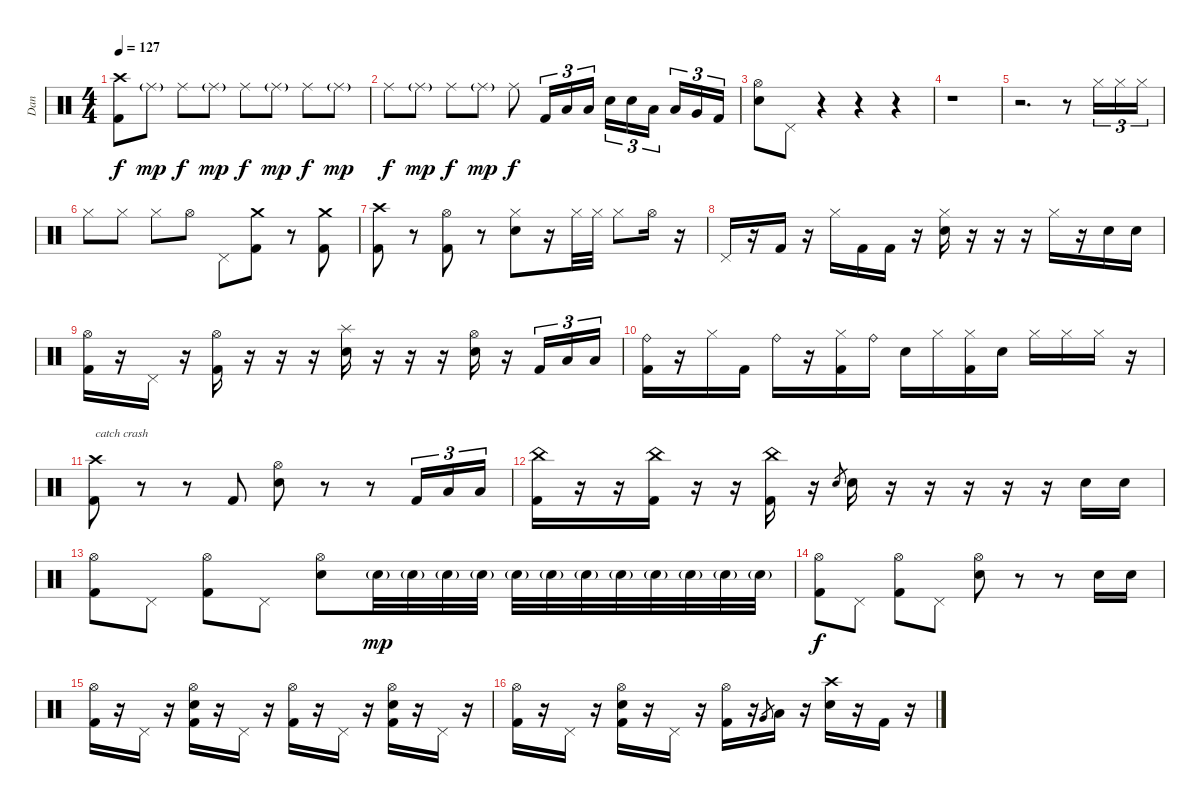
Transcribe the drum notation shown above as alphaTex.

\track ("Dan" "Dan") {instrument percussion}
\staff {score}
\articulation defaults
\ts (4 4)
\tempo 127
\clef neutral
\ks c
("Crash high (hit)" "Kick (hit) 2").8{dy f} "Ride (middle)"{g}.8{dy mp} "Ride (middle)".8{dy f} "Ride (middle)"{g}.8{dy mp} "Ride (middle)".8{dy f} "Ride (middle)"{g}.8{dy mp} "Ride (middle)".8{dy f} "Ride (middle)"{g}.8{dy mp} |
"Ride (middle)".8{dy f} "Ride (middle)"{g}.8{dy mp} "Ride (middle)".8{dy f} "Ride (middle)"{g}.8{dy mp} "Ride (middle)".8{dy f} "Kick (hit) 2".16{tu (3 2)} "Low Tom (hit)".16{tu (3 2)} "Low Tom (hit)".16{tu (3 2)} "Electric Snare (hit)".16{tu (3 2)} "Electric Snare (hit)".16{tu (3 2)} "Low Tom (hit)".16{tu (3 2) beam splitsecondary} "Low Tom (hit)".16{tu (3 2)} "Very Low Tom (hit)".16{tu (3 2)} "Kick (hit) 2".16{tu (3 2)} |
("Hi-Hat (open)" "Electric Snare (hit)").8 "Pedal Hi-Hat (hit)".8 r.4 r.4 r.4 |
r.1 |
r.2{d} r.8 "Hi-Hat (closed)".16{tu (3 2)} "Hi-Hat (closed)".16{tu (3 2)} "Hi-Hat (closed)".16{tu (3 2)} |
"Hi-Hat (closed)".8 "Hi-Hat (closed)".8 "Hi-Hat (closed)".8 "Hi-Hat (open)".8 "Pedal Hi-Hat (hit)".8 ("Crash medium (hit)" "Kick (hit) 2").8 r.8 ("Crash medium (hit)" "Kick (hit) 2").8 |
("Crash high (hit)" "Kick (hit) 2").8 r.8 ("Hi-Hat (open)" "Kick (hit) 2").8 r.8 ("Hi-Hat (closed)" "Electric Snare (hit)").8 r.16 "Hi-Hat (closed)".32 "Hi-Hat (closed)".32 "Hi-Hat (closed)".8 "Hi-Hat (open)".16 r.16 |
"Pedal Hi-Hat (hit)".16 r.16 "Kick (hit) 2".16 r.16 "Hi-Hat (closed)".16 "Kick (hit) 2".16 "Kick (hit) 2".16 r.16 ("Hi-Hat (closed)" "Electric Snare (hit)").16 r.16 r.16 r.16 "Hi-Hat (closed)".16 r.16 "Electric Snare (hit)".16 "Electric Snare (hit)".16 |
("Hi-Hat (open)" "Kick (hit) 2").16 r.16 "Pedal Hi-Hat (hit)".16 r.16 ("Hi-Hat (open)" "Kick (hit) 2").16 r.16 r.16 r.16 ("Splash (hit)" "Electric Snare (hit)").16 r.16 r.16 r.16 ("Hi-Hat (open)" "Electric Snare (hit)").16 r.16 "Kick (hit) 2".16{tu (3 2)} "Low Tom (hit)".16{tu (3 2)} "Low Tom (hit)".16{tu (3 2)} |
("Ride (bell)" "Kick (hit) 2").16 r.16 "Hi-Hat (closed)".16 "Kick (hit) 2".16 "Ride (bell)".16 r.16 ("Hi-Hat (closed)" "Kick (hit) 2").16 "Ride (bell)".16 "Electric Snare (hit)".16 "Hi-Hat (closed)".16 ("Hi-Hat (closed)" "Kick (hit) 2").16 "Electric Snare (hit)".16 "Hi-Hat (closed)".16 "Hi-Hat (closed)".16 "Hi-Hat (closed)".16 r.16 |
("Crash high (hit)" "Kick (hit) 2").8{txt "catch crash"} r.8 r.8 "Kick (hit) 2".8 ("Hi-Hat (open)" "Electric Snare (hit)").8 r.8 r.8 "Kick (hit) 2".16{tu (3 2)} "Low Tom (hit)".16{tu (3 2)} "Low Tom (hit)".16{tu (3 2)} |
("China (hit)" "Kick (hit) 2").16 r.16 r.16 ("China (hit)" "Kick (hit) 2").16 r.16 r.16 ("China (hit)" "Kick (hit) 2").16 r.16 "Electric Snare (hit)".8{gr} "Electric Snare (hit)".16 r.16 r.16 r.16 r.16 r.16 "Electric Snare (hit)".16 "Electric Snare (hit)".16 |
("Hi-Hat (open)" "Kick (hit) 2").8 "Pedal Hi-Hat (hit)".8 ("Hi-Hat (open)" "Kick (hit) 2").8 "Pedal Hi-Hat (hit)".8 ("Hi-Hat (open)" "Electric Snare (hit)").8 "Electric Snare (hit)"{g}.32{dy mp} "Electric Snare (hit)"{g}.32 "Electric Snare (hit)"{g}.32 "Electric Snare (hit)"{g}.32 "Electric Snare (hit)"{g}.32 "Electric Snare (hit)"{g}.32 "Electric Snare (hit)"{g}.32 "Electric Snare (hit)"{g}.32 "Electric Snare (hit)"{g}.32 "Electric Snare (hit)"{g}.32 "Electric Snare (hit)"{g}.32 "Electric Snare (hit)"{g}.32 |
("Hi-Hat (open)" "Kick (hit) 2").8{dy f} "Pedal Hi-Hat (hit)".8 ("Hi-Hat (open)" "Kick (hit) 2").8 "Pedal Hi-Hat (hit)".8 ("Hi-Hat (open)" "Electric Snare (hit)").8 r.8 r.8 "Electric Snare (hit)".16 "Electric Snare (hit)".16 |
("Hi-Hat (open)" "Kick (hit) 2").16 r.16 "Pedal Hi-Hat (hit)".16 r.16 ("Hi-Hat (open)" "Electric Snare (hit)" "Kick (hit) 2").16 r.16 "Pedal Hi-Hat (hit)".16 r.16 ("Hi-Hat (open)" "Kick (hit) 2").16 r.16 "Pedal Hi-Hat (hit)".16 r.16 ("Hi-Hat (open)" "Electric Snare (hit)" "Kick (hit) 2").16 r.16 "Pedal Hi-Hat (hit)".16 r.16 |
("Hi-Hat (open)" "Kick (hit) 2").16 r.16 "Pedal Hi-Hat (hit)".16 r.16 ("Hi-Hat (open)" "Electric Snare (hit)" "Kick (hit) 2").16 r.16 "Pedal Hi-Hat (hit)".16 r.16 ("Hi-Hat (open)" "Kick (hit) 2").16 r.16 "Very Low Tom (hit)".8{gr} "Low Tom (hit)".16 r.16 ("Crash high (hit)" "Electric Snare (hit)").16 r.16 "Kick (hit) 2".16 r.16
